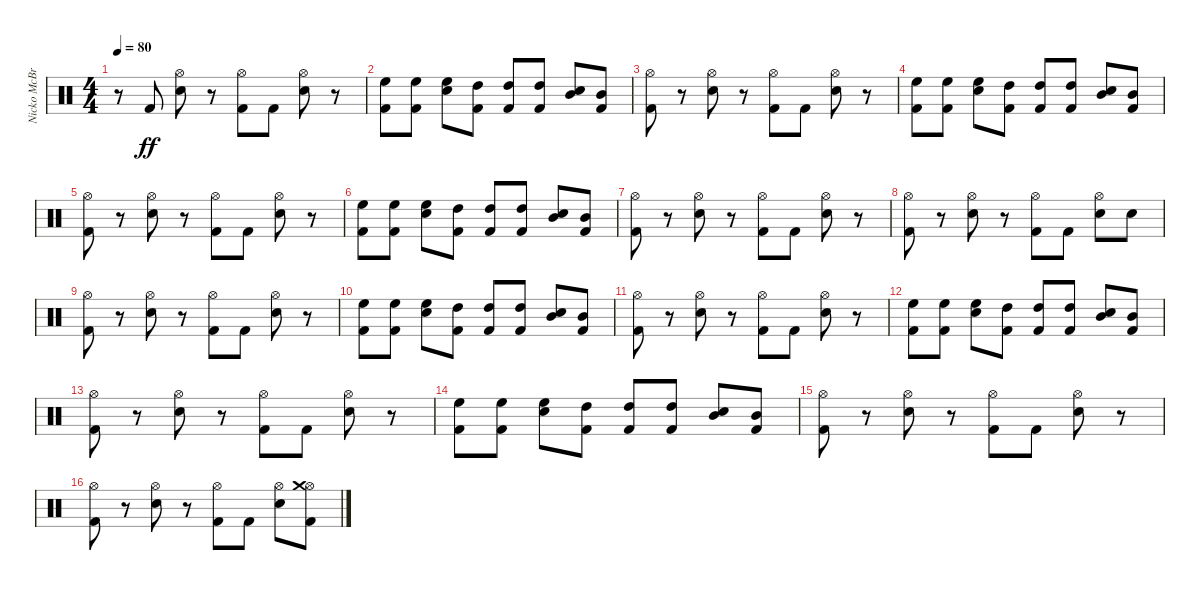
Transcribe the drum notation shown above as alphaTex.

\track ("Nicko McBrain" "Nicko McBr") {instrument percussion}
\staff {score}
\articulation defaults
\ts (4 4)
\tempo 80
\clef neutral
\ks c
r.8{dy ff} "Kick (hit) 2".8 ("Electric Snare (hit)" "Hi-Hat (open)").8 r.8 ("Kick (hit) 2" "Hi-Hat (open)").8 "Kick (hit) 2".8 ("Electric Snare (hit)" "Hi-Hat (open)").8 r.8 |
("Kick (hit) 2" "High Floor Tom (hit)").8 ("Kick (hit) 2" "High Floor Tom (hit)").8 ("Electric Snare (hit)" "High Floor Tom (hit)").8 ("Kick (hit) 2" "High Tom (hit)").8 ("Kick (hit) 2" "High Tom (hit)").8 ("Kick (hit) 2" "High Tom (hit)").8 ("Electric Snare (hit)" "Mid Tom (hit)").8 ("Kick (hit) 2" "Mid Tom (hit)").8 |
("Kick (hit) 2" "Hi-Hat (open)").8 r.8 ("Electric Snare (hit)" "Hi-Hat (open)").8 r.8 ("Kick (hit) 2" "Hi-Hat (open)").8 "Kick (hit) 2".8 ("Electric Snare (hit)" "Hi-Hat (open)").8 r.8 |
("Kick (hit) 2" "High Floor Tom (hit)").8 ("Kick (hit) 2" "High Floor Tom (hit)").8 ("Electric Snare (hit)" "High Floor Tom (hit)").8 ("Kick (hit) 2" "High Tom (hit)").8 ("Kick (hit) 2" "High Tom (hit)").8 ("Kick (hit) 2" "High Tom (hit)").8 ("Electric Snare (hit)" "Mid Tom (hit)").8 ("Kick (hit) 2" "Mid Tom (hit)").8 |
("Kick (hit) 2" "Hi-Hat (open)").8 r.8 ("Electric Snare (hit)" "Hi-Hat (open)").8 r.8 ("Kick (hit) 2" "Hi-Hat (open)").8 "Kick (hit) 2".8 ("Electric Snare (hit)" "Hi-Hat (open)").8 r.8 |
("Kick (hit) 2" "High Floor Tom (hit)").8 ("Kick (hit) 2" "High Floor Tom (hit)").8 ("Electric Snare (hit)" "High Floor Tom (hit)").8 ("Kick (hit) 2" "High Tom (hit)").8 ("Kick (hit) 2" "High Tom (hit)").8 ("Kick (hit) 2" "High Tom (hit)").8 ("Electric Snare (hit)" "Mid Tom (hit)").8 ("Kick (hit) 2" "Mid Tom (hit)").8 |
("Kick (hit) 2" "Hi-Hat (open)").8 r.8 ("Electric Snare (hit)" "Hi-Hat (open)").8 r.8 ("Kick (hit) 2" "Hi-Hat (open)").8 "Kick (hit) 2".8 ("Electric Snare (hit)" "Hi-Hat (open)").8 r.8 |
("Kick (hit) 2" "Hi-Hat (open)").8 r.8 ("Electric Snare (hit)" "Hi-Hat (open)").8 r.8 ("Kick (hit) 2" "Hi-Hat (open)").8 "Kick (hit) 2".8 ("Electric Snare (hit)" "Hi-Hat (open)").8 "Electric Snare (hit)".8 |
("Kick (hit) 2" "Hi-Hat (open)").8 r.8 ("Electric Snare (hit)" "Hi-Hat (open)").8 r.8 ("Kick (hit) 2" "Hi-Hat (open)").8 "Kick (hit) 2".8 ("Electric Snare (hit)" "Hi-Hat (open)").8 r.8 |
("Kick (hit) 2" "High Floor Tom (hit)").8 ("Kick (hit) 2" "High Floor Tom (hit)").8 ("Electric Snare (hit)" "High Floor Tom (hit)").8 ("Kick (hit) 2" "High Tom (hit)").8 ("Kick (hit) 2" "High Tom (hit)").8 ("Kick (hit) 2" "High Tom (hit)").8 ("Electric Snare (hit)" "Mid Tom (hit)").8 ("Kick (hit) 2" "Mid Tom (hit)").8 |
("Kick (hit) 2" "Hi-Hat (open)").8 r.8 ("Electric Snare (hit)" "Hi-Hat (open)").8 r.8 ("Kick (hit) 2" "Hi-Hat (open)").8 "Kick (hit) 2".8 ("Electric Snare (hit)" "Hi-Hat (open)").8 r.8 |
("Kick (hit) 2" "High Floor Tom (hit)").8 ("Kick (hit) 2" "High Floor Tom (hit)").8 ("Electric Snare (hit)" "High Floor Tom (hit)").8 ("Kick (hit) 2" "High Tom (hit)").8 ("Kick (hit) 2" "High Tom (hit)").8 ("Kick (hit) 2" "High Tom (hit)").8 ("Electric Snare (hit)" "Mid Tom (hit)").8 ("Kick (hit) 2" "Mid Tom (hit)").8 |
("Kick (hit) 2" "Hi-Hat (open)").8 r.8 ("Electric Snare (hit)" "Hi-Hat (open)").8 r.8 ("Kick (hit) 2" "Hi-Hat (open)").8 "Kick (hit) 2".8 ("Electric Snare (hit)" "Hi-Hat (open)").8 r.8 |
("Kick (hit) 2" "High Floor Tom (hit)").8 ("Kick (hit) 2" "High Floor Tom (hit)").8 ("Electric Snare (hit)" "High Floor Tom (hit)").8 ("Kick (hit) 2" "High Tom (hit)").8 ("Kick (hit) 2" "High Tom (hit)").8 ("Kick (hit) 2" "High Tom (hit)").8 ("Electric Snare (hit)" "Mid Tom (hit)").8 ("Kick (hit) 2" "Mid Tom (hit)").8 |
("Kick (hit) 2" "Hi-Hat (open)").8 r.8 ("Electric Snare (hit)" "Hi-Hat (open)").8 r.8 ("Kick (hit) 2" "Hi-Hat (open)").8 "Kick (hit) 2".8 ("Electric Snare (hit)" "Hi-Hat (open)").8 r.8 |
("Kick (hit) 2" "Hi-Hat (open)").8 r.8 ("Electric Snare (hit)" "Hi-Hat (open)").8 r.8 ("Kick (hit) 2" "Hi-Hat (open)").8 "Kick (hit) 2".8 ("Electric Snare (hit)" "Hi-Hat (open)").8 ("Kick (hit) 2" "Hi-Hat (open)" "Crash medium (hit)").8
